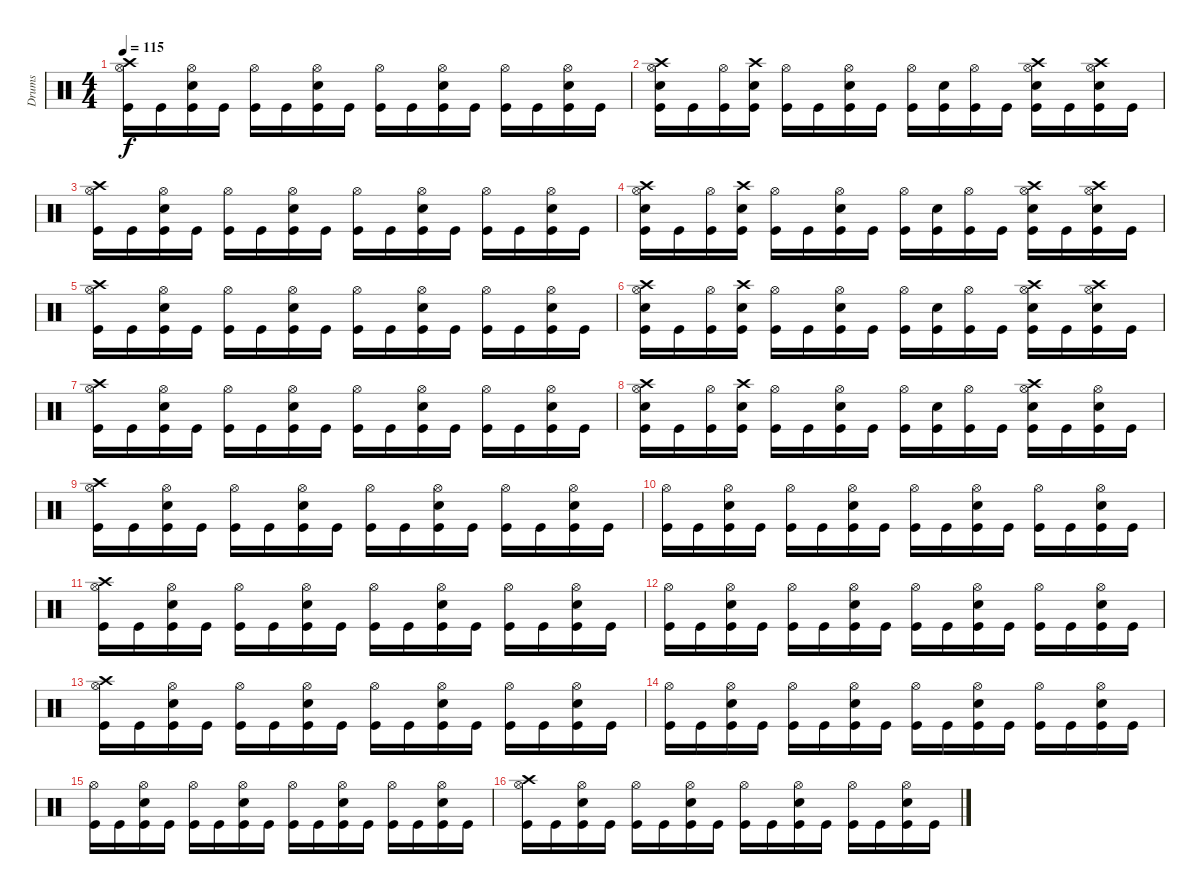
\track ("Drums" "Drums") {instrument percussion}
\staff {score}
\articulation defaults
\ts (4 4)
\tempo 115
\clef neutral
\ks c
("Crash high (hit)" "Kick (hit)" "Hi-Hat (open)").16{dy f} "Kick (hit)".16 ("Kick (hit)" "Electric Snare (hit)" "Hi-Hat (open)").16 "Kick (hit)".16 ("Kick (hit)" "Hi-Hat (open)").16 "Kick (hit)".16 ("Kick (hit)" "Electric Snare (hit)" "Hi-Hat (open)").16 "Kick (hit)".16 ("Hi-Hat (open)" "Kick (hit)").16 "Kick (hit)".16 ("Kick (hit)" "Hi-Hat (open)" "Electric Snare (hit)").16 "Kick (hit)".16 ("Hi-Hat (open)" "Kick (hit)").16 "Kick (hit)".16 ("Kick (hit)" "Hi-Hat (open)" "Electric Snare (hit)").16 "Kick (hit)".16 |
("Crash high (hit)" "Electric Snare (hit)" "Kick (hit)" "Hi-Hat (open)").16 "Kick (hit)".16 ("Kick (hit)" "Hi-Hat (open)").16 ("Crash high (hit)" "Electric Snare (hit)" "Kick (hit)").16 ("Kick (hit)" "Hi-Hat (open)").16 "Kick (hit)".16 ("Electric Snare (hit)" "Kick (hit)" "Hi-Hat (open)").16 "Kick (hit)".16 ("Hi-Hat (open)" "Kick (hit)").16 ("Electric Snare (hit)" "Kick (hit)").16 ("Kick (hit)" "Hi-Hat (open)").16 "Kick (hit)".16 ("Crash high (hit)" "Electric Snare (hit)" "Hi-Hat (open)" "Kick (hit)").16 "Kick (hit)".16 ("Crash high (hit)" "Electric Snare (hit)" "Kick (hit)" "Hi-Hat (open)").16 "Kick (hit)".16 |
("Crash high (hit)" "Kick (hit)" "Hi-Hat (open)").16 "Kick (hit)".16 ("Kick (hit)" "Electric Snare (hit)" "Hi-Hat (open)").16 "Kick (hit)".16 ("Kick (hit)" "Hi-Hat (open)").16 "Kick (hit)".16 ("Kick (hit)" "Electric Snare (hit)" "Hi-Hat (open)").16 "Kick (hit)".16 ("Hi-Hat (open)" "Kick (hit)").16 "Kick (hit)".16 ("Kick (hit)" "Hi-Hat (open)" "Electric Snare (hit)").16 "Kick (hit)".16 ("Hi-Hat (open)" "Kick (hit)").16 "Kick (hit)".16 ("Kick (hit)" "Hi-Hat (open)" "Electric Snare (hit)").16 "Kick (hit)".16 |
("Crash high (hit)" "Electric Snare (hit)" "Kick (hit)" "Hi-Hat (open)").16 "Kick (hit)".16 ("Kick (hit)" "Hi-Hat (open)").16 ("Crash high (hit)" "Electric Snare (hit)" "Kick (hit)").16 ("Kick (hit)" "Hi-Hat (open)").16 "Kick (hit)".16 ("Electric Snare (hit)" "Kick (hit)" "Hi-Hat (open)").16 "Kick (hit)".16 ("Hi-Hat (open)" "Kick (hit)").16 ("Electric Snare (hit)" "Kick (hit)").16 ("Kick (hit)" "Hi-Hat (open)").16 "Kick (hit)".16 ("Crash high (hit)" "Electric Snare (hit)" "Hi-Hat (open)" "Kick (hit)").16 "Kick (hit)".16 ("Crash high (hit)" "Electric Snare (hit)" "Kick (hit)" "Hi-Hat (open)").16 "Kick (hit)".16 |
("Crash high (hit)" "Kick (hit)" "Hi-Hat (open)").16 "Kick (hit)".16 ("Kick (hit)" "Electric Snare (hit)" "Hi-Hat (open)").16 "Kick (hit)".16 ("Kick (hit)" "Hi-Hat (open)").16 "Kick (hit)".16 ("Kick (hit)" "Electric Snare (hit)" "Hi-Hat (open)").16 "Kick (hit)".16 ("Hi-Hat (open)" "Kick (hit)").16 "Kick (hit)".16 ("Kick (hit)" "Hi-Hat (open)" "Electric Snare (hit)").16 "Kick (hit)".16 ("Hi-Hat (open)" "Kick (hit)").16 "Kick (hit)".16 ("Kick (hit)" "Hi-Hat (open)" "Electric Snare (hit)").16 "Kick (hit)".16 |
("Crash high (hit)" "Electric Snare (hit)" "Kick (hit)" "Hi-Hat (open)").16 "Kick (hit)".16 ("Kick (hit)" "Hi-Hat (open)").16 ("Crash high (hit)" "Electric Snare (hit)" "Kick (hit)").16 ("Kick (hit)" "Hi-Hat (open)").16 "Kick (hit)".16 ("Electric Snare (hit)" "Kick (hit)" "Hi-Hat (open)").16 "Kick (hit)".16 ("Hi-Hat (open)" "Kick (hit)").16 ("Electric Snare (hit)" "Kick (hit)").16 ("Kick (hit)" "Hi-Hat (open)").16 "Kick (hit)".16 ("Crash high (hit)" "Electric Snare (hit)" "Hi-Hat (open)" "Kick (hit)").16 "Kick (hit)".16 ("Crash high (hit)" "Electric Snare (hit)" "Kick (hit)" "Hi-Hat (open)").16 "Kick (hit)".16 |
("Crash high (hit)" "Kick (hit)" "Hi-Hat (open)").16 "Kick (hit)".16 ("Kick (hit)" "Electric Snare (hit)" "Hi-Hat (open)").16 "Kick (hit)".16 ("Kick (hit)" "Hi-Hat (open)").16 "Kick (hit)".16 ("Kick (hit)" "Electric Snare (hit)" "Hi-Hat (open)").16 "Kick (hit)".16 ("Hi-Hat (open)" "Kick (hit)").16 "Kick (hit)".16 ("Kick (hit)" "Hi-Hat (open)" "Electric Snare (hit)").16 "Kick (hit)".16 ("Hi-Hat (open)" "Kick (hit)").16 "Kick (hit)".16 ("Kick (hit)" "Hi-Hat (open)" "Electric Snare (hit)").16 "Kick (hit)".16 |
("Crash high (hit)" "Electric Snare (hit)" "Kick (hit)" "Hi-Hat (open)").16 "Kick (hit)".16 ("Kick (hit)" "Hi-Hat (open)").16 ("Crash high (hit)" "Electric Snare (hit)" "Kick (hit)").16 ("Kick (hit)" "Hi-Hat (open)").16 "Kick (hit)".16 ("Electric Snare (hit)" "Kick (hit)" "Hi-Hat (open)").16 "Kick (hit)".16 ("Hi-Hat (open)" "Kick (hit)").16 ("Electric Snare (hit)" "Kick (hit)").16 ("Kick (hit)" "Hi-Hat (open)").16 "Kick (hit)".16 ("Crash high (hit)" "Electric Snare (hit)" "Hi-Hat (open)" "Kick (hit)").16 "Kick (hit)".16 ("Electric Snare (hit)" "Kick (hit)" "Hi-Hat (open)").16 "Kick (hit)".16 |
("Crash high (hit)" "Kick (hit)" "Hi-Hat (open)").16 "Kick (hit)".16 ("Kick (hit)" "Electric Snare (hit)" "Hi-Hat (open)").16 "Kick (hit)".16 ("Kick (hit)" "Hi-Hat (open)").16 "Kick (hit)".16 ("Kick (hit)" "Electric Snare (hit)" "Hi-Hat (open)").16 "Kick (hit)".16 ("Hi-Hat (open)" "Kick (hit)").16 "Kick (hit)".16 ("Kick (hit)" "Hi-Hat (open)" "Electric Snare (hit)").16 "Kick (hit)".16 ("Hi-Hat (open)" "Kick (hit)").16 "Kick (hit)".16 ("Kick (hit)" "Hi-Hat (open)" "Electric Snare (hit)").16 "Kick (hit)".16 |
("Kick (hit)" "Hi-Hat (open)").16 "Kick (hit)".16 ("Kick (hit)" "Electric Snare (hit)" "Hi-Hat (open)").16 "Kick (hit)".16 ("Kick (hit)" "Hi-Hat (open)").16 "Kick (hit)".16 ("Kick (hit)" "Electric Snare (hit)" "Hi-Hat (open)").16 "Kick (hit)".16 ("Hi-Hat (open)" "Kick (hit)").16 "Kick (hit)".16 ("Kick (hit)" "Hi-Hat (open)" "Electric Snare (hit)").16 "Kick (hit)".16 ("Hi-Hat (open)" "Kick (hit)").16 "Kick (hit)".16 ("Kick (hit)" "Hi-Hat (open)" "Electric Snare (hit)").16 "Kick (hit)".16 |
("Crash high (hit)" "Kick (hit)" "Hi-Hat (open)").16 "Kick (hit)".16 ("Kick (hit)" "Electric Snare (hit)" "Hi-Hat (open)").16 "Kick (hit)".16 ("Kick (hit)" "Hi-Hat (open)").16 "Kick (hit)".16 ("Kick (hit)" "Electric Snare (hit)" "Hi-Hat (open)").16 "Kick (hit)".16 ("Hi-Hat (open)" "Kick (hit)").16 "Kick (hit)".16 ("Kick (hit)" "Hi-Hat (open)" "Electric Snare (hit)").16 "Kick (hit)".16 ("Hi-Hat (open)" "Kick (hit)").16 "Kick (hit)".16 ("Kick (hit)" "Hi-Hat (open)" "Electric Snare (hit)").16 "Kick (hit)".16 |
("Kick (hit)" "Hi-Hat (open)").16 "Kick (hit)".16 ("Kick (hit)" "Electric Snare (hit)" "Hi-Hat (open)").16 "Kick (hit)".16 ("Kick (hit)" "Hi-Hat (open)").16 "Kick (hit)".16 ("Kick (hit)" "Electric Snare (hit)" "Hi-Hat (open)").16 "Kick (hit)".16 ("Hi-Hat (open)" "Kick (hit)").16 "Kick (hit)".16 ("Kick (hit)" "Hi-Hat (open)" "Electric Snare (hit)").16 "Kick (hit)".16 ("Hi-Hat (open)" "Kick (hit)").16 "Kick (hit)".16 ("Kick (hit)" "Hi-Hat (open)" "Electric Snare (hit)").16 "Kick (hit)".16 |
("Crash high (hit)" "Kick (hit)" "Hi-Hat (open)").16 "Kick (hit)".16 ("Kick (hit)" "Electric Snare (hit)" "Hi-Hat (open)").16 "Kick (hit)".16 ("Kick (hit)" "Hi-Hat (open)").16 "Kick (hit)".16 ("Kick (hit)" "Electric Snare (hit)" "Hi-Hat (open)").16 "Kick (hit)".16 ("Hi-Hat (open)" "Kick (hit)").16 "Kick (hit)".16 ("Kick (hit)" "Hi-Hat (open)" "Electric Snare (hit)").16 "Kick (hit)".16 ("Hi-Hat (open)" "Kick (hit)").16 "Kick (hit)".16 ("Kick (hit)" "Hi-Hat (open)" "Electric Snare (hit)").16 "Kick (hit)".16 |
("Kick (hit)" "Hi-Hat (open)").16 "Kick (hit)".16 ("Kick (hit)" "Electric Snare (hit)" "Hi-Hat (open)").16 "Kick (hit)".16 ("Kick (hit)" "Hi-Hat (open)").16 "Kick (hit)".16 ("Kick (hit)" "Electric Snare (hit)" "Hi-Hat (open)").16 "Kick (hit)".16 ("Hi-Hat (open)" "Kick (hit)").16 "Kick (hit)".16 ("Kick (hit)" "Hi-Hat (open)" "Electric Snare (hit)").16 "Kick (hit)".16 ("Hi-Hat (open)" "Kick (hit)").16 "Kick (hit)".16 ("Kick (hit)" "Hi-Hat (open)" "Electric Snare (hit)").16 "Kick (hit)".16 |
("Kick (hit)" "Hi-Hat (open)").16 "Kick (hit)".16 ("Kick (hit)" "Electric Snare (hit)" "Hi-Hat (open)").16 "Kick (hit)".16 ("Kick (hit)" "Hi-Hat (open)").16 "Kick (hit)".16 ("Kick (hit)" "Electric Snare (hit)" "Hi-Hat (open)").16 "Kick (hit)".16 ("Hi-Hat (open)" "Kick (hit)").16 "Kick (hit)".16 ("Kick (hit)" "Hi-Hat (open)" "Electric Snare (hit)").16 "Kick (hit)".16 ("Hi-Hat (open)" "Kick (hit)").16 "Kick (hit)".16 ("Kick (hit)" "Hi-Hat (open)" "Electric Snare (hit)").16 "Kick (hit)".16 |
("Crash high (hit)" "Kick (hit)" "Hi-Hat (open)").16 "Kick (hit)".16 ("Kick (hit)" "Electric Snare (hit)" "Hi-Hat (open)").16 "Kick (hit)".16 ("Kick (hit)" "Hi-Hat (open)").16 "Kick (hit)".16 ("Kick (hit)" "Electric Snare (hit)" "Hi-Hat (open)").16 "Kick (hit)".16 ("Hi-Hat (open)" "Kick (hit)").16 "Kick (hit)".16 ("Kick (hit)" "Hi-Hat (open)" "Electric Snare (hit)").16 "Kick (hit)".16 ("Hi-Hat (open)" "Kick (hit)").16 "Kick (hit)".16 ("Kick (hit)" "Hi-Hat (open)" "Electric Snare (hit)").16 "Kick (hit)".16
